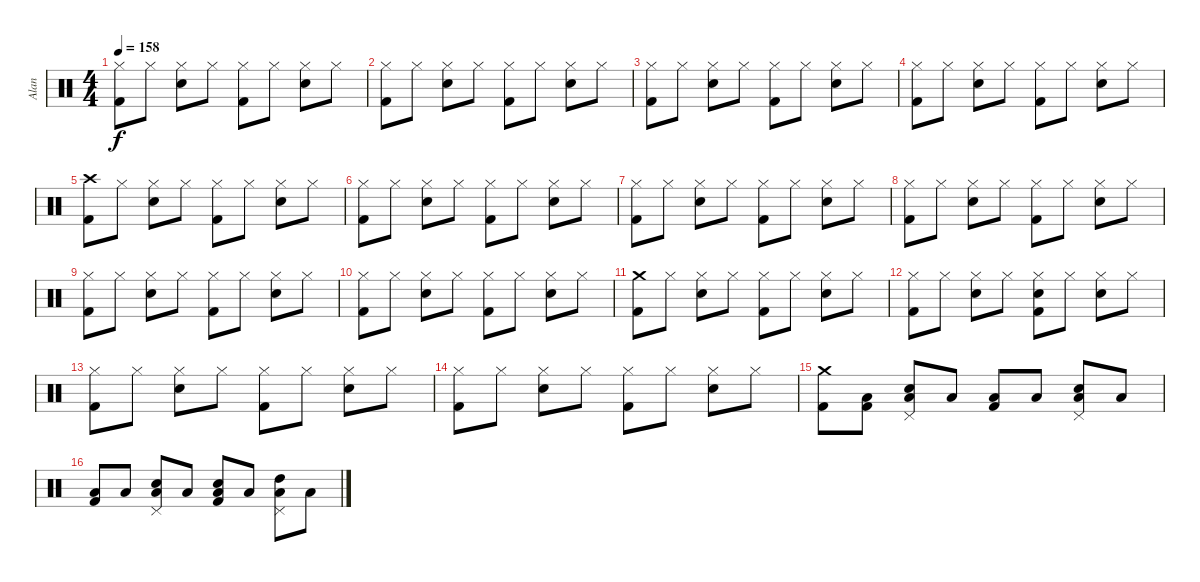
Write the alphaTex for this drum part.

\track ("Alan" "Alan") {instrument percussion}
\staff {score}
\articulation defaults
\ts (4 4)
\tempo 158
\clef neutral
\ks c
("Kick (hit) 2" "Hi-Hat (closed)").8{dy f} "Hi-Hat (closed)".8 ("Hi-Hat (closed)" "Electric Snare (hit)").8 "Hi-Hat (closed)".8 ("Kick (hit) 2" "Hi-Hat (closed)").8 "Hi-Hat (closed)".8 ("Hi-Hat (closed)" "Electric Snare (hit)").8 "Hi-Hat (closed)".8 |
("Kick (hit) 2" "Hi-Hat (closed)").8 "Hi-Hat (closed)".8 ("Hi-Hat (closed)" "Electric Snare (hit)").8 "Hi-Hat (closed)".8 ("Kick (hit) 2" "Hi-Hat (closed)").8 "Hi-Hat (closed)".8 ("Hi-Hat (closed)" "Electric Snare (hit)").8 "Hi-Hat (closed)".8 |
("Kick (hit) 2" "Hi-Hat (closed)").8 "Hi-Hat (closed)".8 ("Hi-Hat (closed)" "Electric Snare (hit)").8 "Hi-Hat (closed)".8 ("Kick (hit) 2" "Hi-Hat (closed)").8 "Hi-Hat (closed)".8 ("Hi-Hat (closed)" "Electric Snare (hit)").8 "Hi-Hat (closed)".8 |
("Kick (hit) 2" "Hi-Hat (closed)").8 "Hi-Hat (closed)".8 ("Hi-Hat (closed)" "Electric Snare (hit)").8 "Hi-Hat (closed)".8 ("Kick (hit) 2" "Hi-Hat (closed)").8 "Hi-Hat (closed)".8 ("Hi-Hat (closed)" "Electric Snare (hit)").8 "Hi-Hat (closed)".8 |
("Crash high (hit)" "Kick (hit) 2").8 "Hi-Hat (closed)".8 ("Hi-Hat (closed)" "Electric Snare (hit)").8 "Hi-Hat (closed)".8 ("Kick (hit) 2" "Hi-Hat (closed)").8 "Hi-Hat (closed)".8 ("Hi-Hat (closed)" "Electric Snare (hit)").8 "Hi-Hat (closed)".8 |
("Kick (hit) 2" "Hi-Hat (closed)").8 "Hi-Hat (closed)".8 ("Hi-Hat (closed)" "Electric Snare (hit)").8 "Hi-Hat (closed)".8 ("Kick (hit) 2" "Hi-Hat (closed)").8 "Hi-Hat (closed)".8 ("Hi-Hat (closed)" "Electric Snare (hit)").8 "Hi-Hat (closed)".8 |
("Kick (hit) 2" "Hi-Hat (closed)").8 "Hi-Hat (closed)".8 ("Hi-Hat (closed)" "Electric Snare (hit)").8 "Hi-Hat (closed)".8 ("Kick (hit) 2" "Hi-Hat (closed)").8 "Hi-Hat (closed)".8 ("Hi-Hat (closed)" "Electric Snare (hit)").8 "Hi-Hat (closed)".8 |
("Kick (hit) 2" "Hi-Hat (closed)").8 "Hi-Hat (closed)".8 ("Hi-Hat (closed)" "Electric Snare (hit)").8 "Hi-Hat (closed)".8 ("Kick (hit) 2" "Hi-Hat (closed)").8 "Hi-Hat (closed)".8 ("Hi-Hat (closed)" "Electric Snare (hit)").8 "Hi-Hat (closed)".8 |
("Kick (hit) 2" "Hi-Hat (closed)").8 "Hi-Hat (closed)".8 ("Hi-Hat (closed)" "Electric Snare (hit)").8 "Hi-Hat (closed)".8 ("Kick (hit) 2" "Hi-Hat (closed)").8 "Hi-Hat (closed)".8 ("Hi-Hat (closed)" "Electric Snare (hit)").8 "Hi-Hat (closed)".8 |
("Kick (hit) 2" "Hi-Hat (closed)").8 "Hi-Hat (closed)".8 ("Hi-Hat (closed)" "Electric Snare (hit)").8 "Hi-Hat (closed)".8 ("Kick (hit) 2" "Hi-Hat (closed)").8 "Hi-Hat (closed)".8 ("Hi-Hat (closed)" "Electric Snare (hit)").8 "Hi-Hat (closed)".8 |
("Kick (hit) 2" "Crash medium (hit)").8 "Hi-Hat (closed)".8 ("Hi-Hat (closed)" "Electric Snare (hit)").8 "Hi-Hat (closed)".8 ("Kick (hit) 2" "Hi-Hat (closed)").8 "Hi-Hat (closed)".8 ("Hi-Hat (closed)" "Electric Snare (hit)").8 "Hi-Hat (closed)".8 |
("Kick (hit) 2" "Hi-Hat (closed)").8 "Hi-Hat (closed)".8 ("Hi-Hat (closed)" "Electric Snare (hit)").8 "Hi-Hat (closed)".8 ("Kick (hit) 2" "Hi-Hat (closed)" "Electric Snare (hit)").8 "Hi-Hat (closed)".8 ("Hi-Hat (closed)" "Electric Snare (hit)").8 "Hi-Hat (closed)".8 |
("Kick (hit) 2" "Hi-Hat (closed)").8 "Hi-Hat (closed)".8 ("Hi-Hat (closed)" "Electric Snare (hit)").8 "Hi-Hat (closed)".8 ("Kick (hit) 2" "Hi-Hat (closed)").8 "Hi-Hat (closed)".8 ("Hi-Hat (closed)" "Electric Snare (hit)").8 "Hi-Hat (closed)".8 |
("Kick (hit) 2" "Hi-Hat (closed)").8 "Hi-Hat (closed)".8 ("Hi-Hat (closed)" "Electric Snare (hit)").8 "Hi-Hat (closed)".8 ("Kick (hit) 2" "Hi-Hat (closed)").8 "Hi-Hat (closed)".8 ("Hi-Hat (closed)" "Electric Snare (hit)").8 "Hi-Hat (closed)".8 |
("Crash medium (hit)" "Kick (hit) 2").8 ("Low Tom (hit)" "Kick (hit) 2").8 ("Low Tom (hit)" "Electric Snare (hit)" "Pedal Hi-Hat (hit)").8 "Low Tom (hit)".8 ("Low Tom (hit)" "Kick (hit) 2").8 "Low Tom (hit)".8 ("Low Tom (hit)" "Electric Snare (hit)" "Pedal Hi-Hat (hit)").8 "Low Tom (hit)".8 |
("Low Tom (hit)" "Kick (hit) 2").8 "Low Tom (hit)".8 ("Low Tom (hit)" "Electric Snare (hit)" "Pedal Hi-Hat (hit)").8 "Low Tom (hit)".8 ("Low Tom (hit)" "Kick (hit) 2" "Electric Snare (hit)").8 "Low Tom (hit)".8 ("Low Tom (hit)" "High Tom (hit)" "Pedal Hi-Hat (hit)").8 "Low Tom (hit)".8
